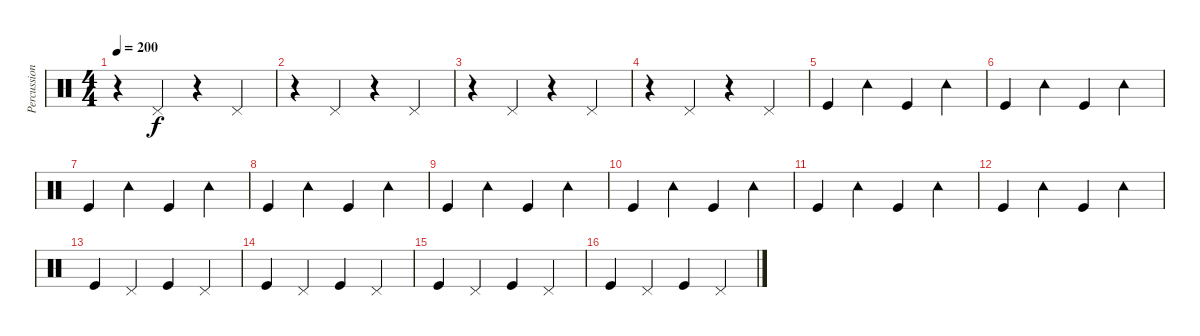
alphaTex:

\track ("Percussions" "Percussion") {instrument percussion}
\staff {score}
\articulation defaults
\ts (4 4)
\tempo 200
\clef neutral
\ks c
r.4{dy f} "Pedal Hi-Hat (hit)".4 r.4 "Pedal Hi-Hat (hit)".4 |
r.4 "Pedal Hi-Hat (hit)".4 r.4 "Pedal Hi-Hat (hit)".4 |
r.4 "Pedal Hi-Hat (hit)".4 r.4 "Pedal Hi-Hat (hit)".4 |
r.4 "Pedal Hi-Hat (hit)".4 r.4 "Pedal Hi-Hat (hit)".4 |
"Kick (hit)".4 "Tambourine (hit)".4 "Kick (hit)".4 "Tambourine (hit)".4 |
"Kick (hit)".4 "Tambourine (hit)".4 "Kick (hit)".4 "Tambourine (hit)".4 |
"Kick (hit)".4 "Tambourine (hit)".4 "Kick (hit)".4 "Tambourine (hit)".4 |
"Kick (hit)".4 "Tambourine (hit)".4 "Kick (hit)".4 "Tambourine (hit)".4 |
"Kick (hit)".4 "Tambourine (hit)".4 "Kick (hit)".4 "Tambourine (hit)".4 |
"Kick (hit)".4 "Tambourine (hit)".4 "Kick (hit)".4 "Tambourine (hit)".4 |
"Kick (hit)".4 "Tambourine (hit)".4 "Kick (hit)".4 "Tambourine (hit)".4 |
"Kick (hit)".4 "Tambourine (hit)".4 "Kick (hit)".4 "Tambourine (hit)".4 |
"Kick (hit)".4 "Pedal Hi-Hat (hit)".4 "Kick (hit)".4 "Pedal Hi-Hat (hit)".4 |
"Kick (hit)".4 "Pedal Hi-Hat (hit)".4 "Kick (hit)".4 "Pedal Hi-Hat (hit)".4 |
"Kick (hit)".4 "Pedal Hi-Hat (hit)".4 "Kick (hit)".4 "Pedal Hi-Hat (hit)".4 |
"Kick (hit)".4 "Pedal Hi-Hat (hit)".4 "Kick (hit)".4 "Pedal Hi-Hat (hit)".4
